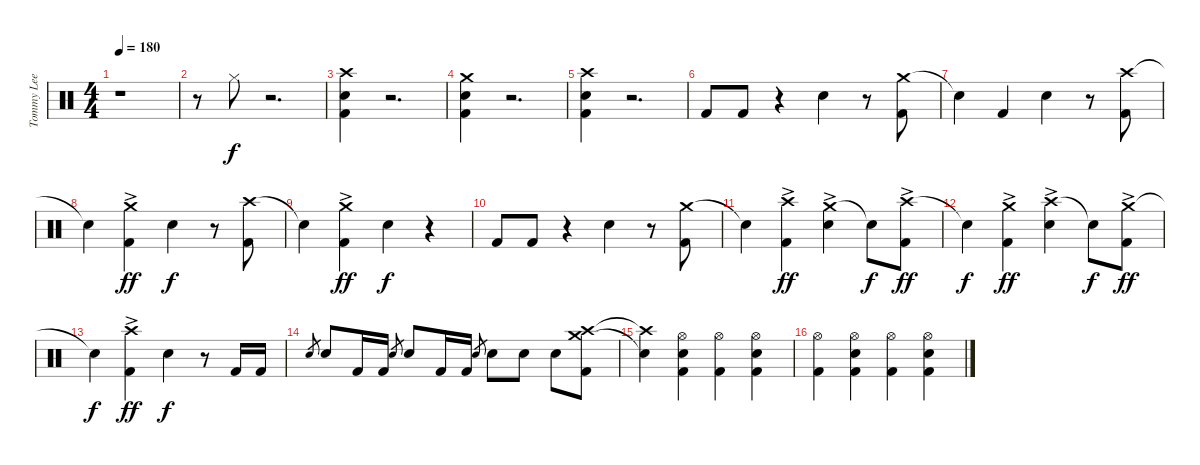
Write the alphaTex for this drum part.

\track ("Tommy Lee" "Tommy Lee") {instrument percussion}
\staff {score}
\articulation defaults
\ts (4 4)
\tempo 180
\clef neutral
\ks c
r.1{dy f volume 0} |
r.8 "Hi-Hat (closed)".8{volume 16} r.2{d} |
("Crash high (hit)" "Electric Snare (hit)" "Kick (hit) 2").4 r.2{d volume 0} |
("Crash medium (hit)" "Electric Snare (hit)" "Kick (hit) 2").4{volume 16} r.2{d volume 0} |
("Crash high (hit)" "Electric Snare (hit)" "Kick (hit) 2").4{volume 16} r.2{d} |
"Kick (hit) 2".8 "Kick (hit) 2".8 r.4 "Electric Snare (hit)".4 r.8 ("Crash medium (hit)" "Kick (hit) 2").8 |
"Snare (hit)"{t}.4 "Kick (hit) 2".4 "Electric Snare (hit)".4 r.8 ("Crash high (hit)" "Kick (hit) 2").8 |
"Snare (hit)"{t}.4 ("Crash medium (hit)"{ac} "Kick (hit) 2").4{dy ff} "Electric Snare (hit)".4{dy f} r.8 ("Crash high (hit)" "Kick (hit) 2").8 |
"Snare (hit)"{t}.4 ("Crash medium (hit)"{ac} "Kick (hit) 2").4{dy ff} "Electric Snare (hit)".4{dy f} r.4 |
"Kick (hit) 2".8 "Kick (hit) 2".8 r.4 "Electric Snare (hit)".4 r.8 ("Crash medium (hit)" "Kick (hit) 2").8 |
"Snare (hit)"{t}.4 ("Crash high (hit)"{ac} "Kick (hit) 2").4{dy ff} ("Crash medium (hit)"{ac} "Electric Snare (hit)").4 "Snare (hit)"{t}.8{dy f} ("Crash high (hit)"{ac} "Kick (hit) 2").8{dy ff} |
"Snare (hit)"{t}.4{dy f} ("Crash medium (hit)"{ac} "Kick (hit) 2").4{dy ff} ("Crash high (hit)"{ac} "Electric Snare (hit)").4 "Snare (hit)"{t}.8{dy f} ("Crash medium (hit)"{ac} "Kick (hit) 2").8{dy ff} |
"Snare (hit)"{t}.4{dy f} ("Crash high (hit)"{ac} "Kick (hit) 2").4{dy ff} "Electric Snare (hit)".4{dy f} r.8 "Kick (hit) 2".16 "Kick (hit) 2".16 |
"Electric Snare (hit)".8{gr} "Electric Snare (hit)".8 "Kick (hit) 2".16 "Kick (hit) 2".16 "Electric Snare (hit)".8{gr} "Electric Snare (hit)".8 "Kick (hit) 2".16 "Kick (hit) 2".16 "Electric Snare (hit)".8{gr} "Electric Snare (hit)".8 "Electric Snare (hit)".8 "Electric Snare (hit)".8 ("Crash high (hit)" "Crash medium (hit)" "Kick (hit) 2").8 |
("Crash high (hit)"{t} "Snare (hit)"{t}).4 ("Hi-Hat (open)" "Electric Snare (hit)" "Kick (hit) 2").4 ("Hi-Hat (open)" "Kick (hit) 2").4 ("Hi-Hat (open)" "Electric Snare (hit)" "Kick (hit) 2").4 |
("Hi-Hat (open)" "Kick (hit) 2").4 ("Hi-Hat (open)" "Electric Snare (hit)" "Kick (hit) 2").4 ("Hi-Hat (open)" "Kick (hit) 2").4 ("Hi-Hat (open)" "Electric Snare (hit)" "Kick (hit) 2").4
